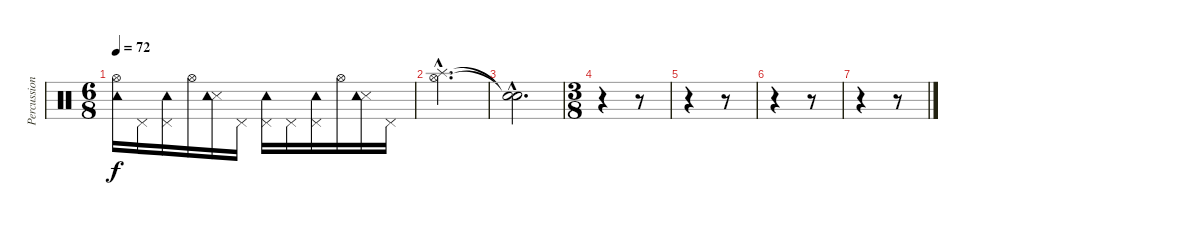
\track ("Percussion" "Percussion") {instrument percussion}
\staff {score}
\articulation defaults
\ts (6 8)
\tempo 72
\clef neutral
\ks c
("Hi-Hat (open)" "Tambourine (hit)").16{dy f} "Pedal Hi-Hat (hit)".16 ("Pedal Hi-Hat (hit)" "Tambourine (hit)").16 "Hi-Hat (open)".16 ("Snare (side stick) 3" "Tambourine (hit)").16 "Pedal Hi-Hat (hit)".16 ("Pedal Hi-Hat (hit)" "Tambourine (hit)").16 "Pedal Hi-Hat (hit)".16 ("Pedal Hi-Hat (hit)" "Tambourine (hit)").16 "Hi-Hat (open)".16 ("Snare (side stick) 3" "Tambourine (hit)").16 "Pedal Hi-Hat (hit)".16 |
("Hi-Hat (open)"{hac} "Splash (hit)"{hac}).2{d} |
("Snare (hit)"{hac t} "Snare (hit)"{hac t}).2{d} |
\ts (3 8)
r.4 r.8 |
r.4 r.8 |
r.4 r.8 |
r.4 r.8
